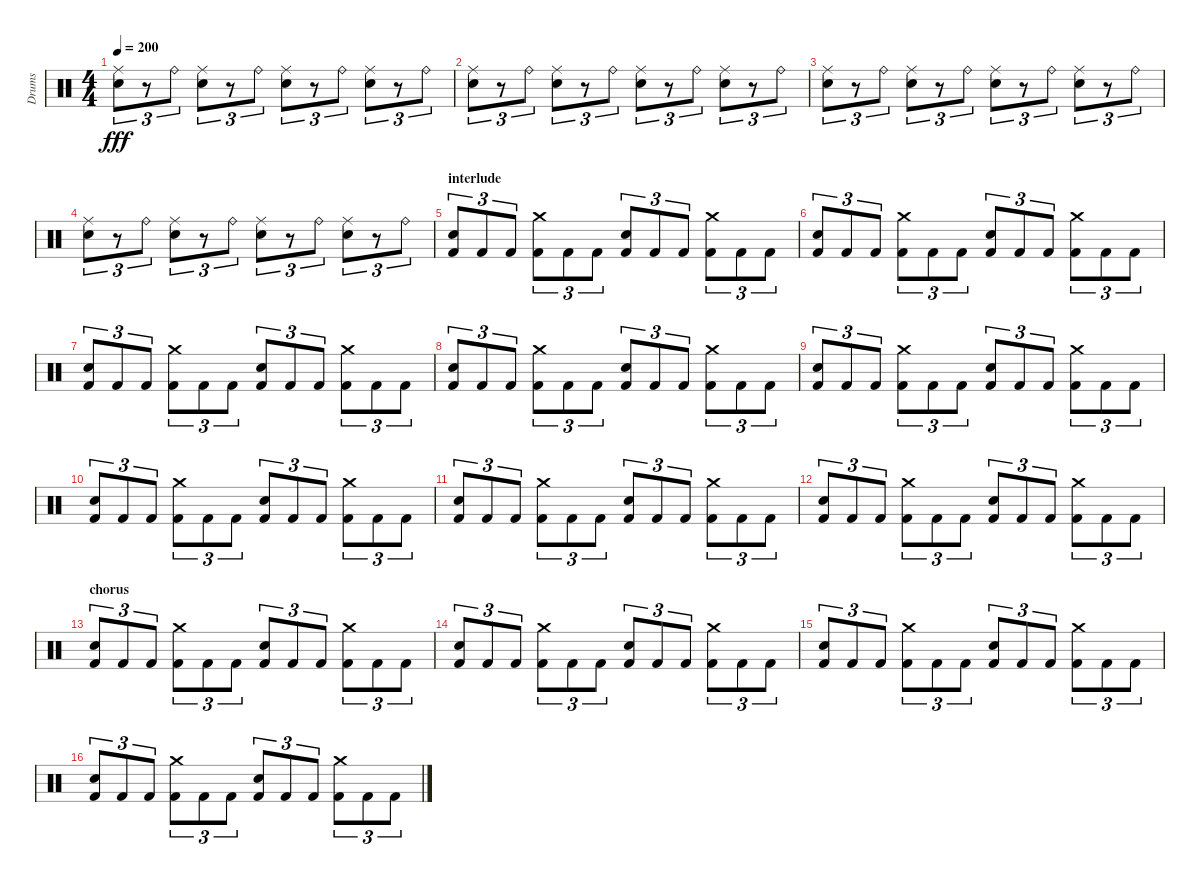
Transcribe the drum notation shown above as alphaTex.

\track ("Drums" "Drums") {instrument percussion}
\staff {score}
\articulation defaults
\ts (4 4)
\tempo 200
\clef neutral
\ks c
("Electric Snare (hit)" "Ride (middle)").8{tu (3 2) dy fff} r.8{tu (3 2)} "Ride (bell)".8{tu (3 2)} ("Electric Snare (hit)" "Ride (middle)").8{tu (3 2)} r.8{tu (3 2)} "Ride (bell)".8{tu (3 2)} ("Electric Snare (hit)" "Ride (middle)").8{tu (3 2)} r.8{tu (3 2)} "Ride (bell)".8{tu (3 2)} ("Electric Snare (hit)" "Ride (middle)").8{tu (3 2)} r.8{tu (3 2)} "Ride (bell)".8{tu (3 2)} |
("Electric Snare (hit)" "Ride (middle)").8{tu (3 2)} r.8{tu (3 2)} "Ride (bell)".8{tu (3 2)} ("Electric Snare (hit)" "Ride (middle)").8{tu (3 2)} r.8{tu (3 2)} "Ride (bell)".8{tu (3 2)} ("Electric Snare (hit)" "Ride (middle)").8{tu (3 2)} r.8{tu (3 2)} "Ride (bell)".8{tu (3 2)} ("Electric Snare (hit)" "Ride (middle)").8{tu (3 2)} r.8{tu (3 2)} "Ride (bell)".8{tu (3 2)} |
("Electric Snare (hit)" "Ride (middle)").8{tu (3 2)} r.8{tu (3 2)} "Ride (bell)".8{tu (3 2)} ("Electric Snare (hit)" "Ride (middle)").8{tu (3 2)} r.8{tu (3 2)} "Ride (bell)".8{tu (3 2)} ("Electric Snare (hit)" "Ride (middle)").8{tu (3 2)} r.8{tu (3 2)} "Ride (bell)".8{tu (3 2)} ("Electric Snare (hit)" "Ride (middle)").8{tu (3 2)} r.8{tu (3 2)} "Ride (bell)".8{tu (3 2)} |
("Electric Snare (hit)" "Ride (middle)").8{tu (3 2)} r.8{tu (3 2)} "Ride (bell)".8{tu (3 2)} ("Electric Snare (hit)" "Ride (middle)").8{tu (3 2)} r.8{tu (3 2)} "Ride (bell)".8{tu (3 2)} ("Electric Snare (hit)" "Ride (middle)").8{tu (3 2)} r.8{tu (3 2)} "Ride (bell)".8{tu (3 2)} ("Electric Snare (hit)" "Ride (middle)").8{tu (3 2)} r.8{tu (3 2)} "Ride (bell)".8{tu (3 2)} |
\section ("" "interlude")
("Electric Snare (hit)" "Kick (hit) 2").8{tu (3 2)} "Kick (hit) 2".8{tu (3 2)} "Kick (hit) 2".8{tu (3 2)} ("Crash medium (hit)" "Kick (hit) 2").8{tu (3 2)} "Kick (hit) 2".8{tu (3 2)} "Kick (hit) 2".8{tu (3 2)} ("Electric Snare (hit)" "Kick (hit) 2").8{tu (3 2)} "Kick (hit) 2".8{tu (3 2)} "Kick (hit) 2".8{tu (3 2)} ("Crash medium (hit)" "Kick (hit) 2").8{tu (3 2)} "Kick (hit) 2".8{tu (3 2)} "Kick (hit) 2".8{tu (3 2)} |
("Electric Snare (hit)" "Kick (hit) 2").8{tu (3 2)} "Kick (hit) 2".8{tu (3 2)} "Kick (hit) 2".8{tu (3 2)} ("Crash medium (hit)" "Kick (hit) 2").8{tu (3 2)} "Kick (hit) 2".8{tu (3 2)} "Kick (hit) 2".8{tu (3 2)} ("Electric Snare (hit)" "Kick (hit) 2").8{tu (3 2)} "Kick (hit) 2".8{tu (3 2)} "Kick (hit) 2".8{tu (3 2)} ("Crash medium (hit)" "Kick (hit) 2").8{tu (3 2)} "Kick (hit) 2".8{tu (3 2)} "Kick (hit) 2".8{tu (3 2)} |
("Electric Snare (hit)" "Kick (hit) 2").8{tu (3 2)} "Kick (hit) 2".8{tu (3 2)} "Kick (hit) 2".8{tu (3 2)} ("Crash medium (hit)" "Kick (hit) 2").8{tu (3 2)} "Kick (hit) 2".8{tu (3 2)} "Kick (hit) 2".8{tu (3 2)} ("Electric Snare (hit)" "Kick (hit) 2").8{tu (3 2)} "Kick (hit) 2".8{tu (3 2)} "Kick (hit) 2".8{tu (3 2)} ("Crash medium (hit)" "Kick (hit) 2").8{tu (3 2)} "Kick (hit) 2".8{tu (3 2)} "Kick (hit) 2".8{tu (3 2)} |
("Electric Snare (hit)" "Kick (hit) 2").8{tu (3 2)} "Kick (hit) 2".8{tu (3 2)} "Kick (hit) 2".8{tu (3 2)} ("Crash medium (hit)" "Kick (hit) 2").8{tu (3 2)} "Kick (hit) 2".8{tu (3 2)} "Kick (hit) 2".8{tu (3 2)} ("Electric Snare (hit)" "Kick (hit) 2").8{tu (3 2)} "Kick (hit) 2".8{tu (3 2)} "Kick (hit) 2".8{tu (3 2)} ("Crash medium (hit)" "Kick (hit) 2").8{tu (3 2)} "Kick (hit) 2".8{tu (3 2)} "Kick (hit) 2".8{tu (3 2)} |
("Electric Snare (hit)" "Kick (hit) 2").8{tu (3 2)} "Kick (hit) 2".8{tu (3 2)} "Kick (hit) 2".8{tu (3 2)} ("Crash medium (hit)" "Kick (hit) 2").8{tu (3 2)} "Kick (hit) 2".8{tu (3 2)} "Kick (hit) 2".8{tu (3 2)} ("Electric Snare (hit)" "Kick (hit) 2").8{tu (3 2)} "Kick (hit) 2".8{tu (3 2)} "Kick (hit) 2".8{tu (3 2)} ("Crash medium (hit)" "Kick (hit) 2").8{tu (3 2)} "Kick (hit) 2".8{tu (3 2)} "Kick (hit) 2".8{tu (3 2)} |
("Electric Snare (hit)" "Kick (hit) 2").8{tu (3 2)} "Kick (hit) 2".8{tu (3 2)} "Kick (hit) 2".8{tu (3 2)} ("Crash medium (hit)" "Kick (hit) 2").8{tu (3 2)} "Kick (hit) 2".8{tu (3 2)} "Kick (hit) 2".8{tu (3 2)} ("Electric Snare (hit)" "Kick (hit) 2").8{tu (3 2)} "Kick (hit) 2".8{tu (3 2)} "Kick (hit) 2".8{tu (3 2)} ("Crash medium (hit)" "Kick (hit) 2").8{tu (3 2)} "Kick (hit) 2".8{tu (3 2)} "Kick (hit) 2".8{tu (3 2)} |
("Electric Snare (hit)" "Kick (hit) 2").8{tu (3 2)} "Kick (hit) 2".8{tu (3 2)} "Kick (hit) 2".8{tu (3 2)} ("Crash medium (hit)" "Kick (hit) 2").8{tu (3 2)} "Kick (hit) 2".8{tu (3 2)} "Kick (hit) 2".8{tu (3 2)} ("Electric Snare (hit)" "Kick (hit) 2").8{tu (3 2)} "Kick (hit) 2".8{tu (3 2)} "Kick (hit) 2".8{tu (3 2)} ("Crash medium (hit)" "Kick (hit) 2").8{tu (3 2)} "Kick (hit) 2".8{tu (3 2)} "Kick (hit) 2".8{tu (3 2)} |
("Electric Snare (hit)" "Kick (hit) 2").8{tu (3 2)} "Kick (hit) 2".8{tu (3 2)} "Kick (hit) 2".8{tu (3 2)} ("Crash medium (hit)" "Kick (hit) 2").8{tu (3 2)} "Kick (hit) 2".8{tu (3 2)} "Kick (hit) 2".8{tu (3 2)} ("Electric Snare (hit)" "Kick (hit) 2").8{tu (3 2)} "Kick (hit) 2".8{tu (3 2)} "Kick (hit) 2".8{tu (3 2)} ("Crash medium (hit)" "Kick (hit) 2").8{tu (3 2)} "Kick (hit) 2".8{tu (3 2)} "Kick (hit) 2".8{tu (3 2)} |
\section ("" "chorus")
("Electric Snare (hit)" "Kick (hit) 2").8{tu (3 2)} "Kick (hit) 2".8{tu (3 2)} "Kick (hit) 2".8{tu (3 2)} ("Crash medium (hit)" "Kick (hit) 2").8{tu (3 2)} "Kick (hit) 2".8{tu (3 2)} "Kick (hit) 2".8{tu (3 2)} ("Electric Snare (hit)" "Kick (hit) 2").8{tu (3 2)} "Kick (hit) 2".8{tu (3 2)} "Kick (hit) 2".8{tu (3 2)} ("Crash medium (hit)" "Kick (hit) 2").8{tu (3 2)} "Kick (hit) 2".8{tu (3 2)} "Kick (hit) 2".8{tu (3 2)} |
("Electric Snare (hit)" "Kick (hit) 2").8{tu (3 2)} "Kick (hit) 2".8{tu (3 2)} "Kick (hit) 2".8{tu (3 2)} ("Crash medium (hit)" "Kick (hit) 2").8{tu (3 2)} "Kick (hit) 2".8{tu (3 2)} "Kick (hit) 2".8{tu (3 2)} ("Electric Snare (hit)" "Kick (hit) 2").8{tu (3 2)} "Kick (hit) 2".8{tu (3 2)} "Kick (hit) 2".8{tu (3 2)} ("Crash medium (hit)" "Kick (hit) 2").8{tu (3 2)} "Kick (hit) 2".8{tu (3 2)} "Kick (hit) 2".8{tu (3 2)} |
("Electric Snare (hit)" "Kick (hit) 2").8{tu (3 2)} "Kick (hit) 2".8{tu (3 2)} "Kick (hit) 2".8{tu (3 2)} ("Crash medium (hit)" "Kick (hit) 2").8{tu (3 2)} "Kick (hit) 2".8{tu (3 2)} "Kick (hit) 2".8{tu (3 2)} ("Electric Snare (hit)" "Kick (hit) 2").8{tu (3 2)} "Kick (hit) 2".8{tu (3 2)} "Kick (hit) 2".8{tu (3 2)} ("Crash medium (hit)" "Kick (hit) 2").8{tu (3 2)} "Kick (hit) 2".8{tu (3 2)} "Kick (hit) 2".8{tu (3 2)} |
("Electric Snare (hit)" "Kick (hit) 2").8{tu (3 2)} "Kick (hit) 2".8{tu (3 2)} "Kick (hit) 2".8{tu (3 2)} ("Crash medium (hit)" "Kick (hit) 2").8{tu (3 2)} "Kick (hit) 2".8{tu (3 2)} "Kick (hit) 2".8{tu (3 2)} ("Electric Snare (hit)" "Kick (hit) 2").8{tu (3 2)} "Kick (hit) 2".8{tu (3 2)} "Kick (hit) 2".8{tu (3 2)} ("Crash medium (hit)" "Kick (hit) 2").8{tu (3 2)} "Kick (hit) 2".8{tu (3 2)} "Kick (hit) 2".8{tu (3 2)}
